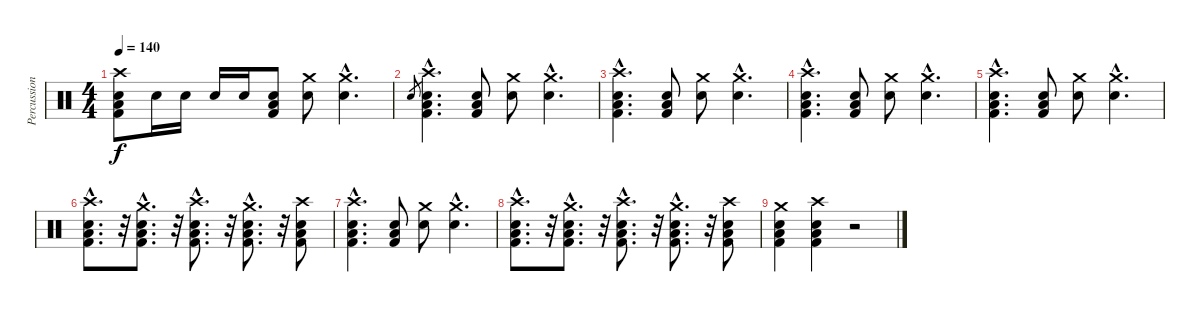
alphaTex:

\track ("Percussions" "Percussion") {instrument percussion}
\staff {score}
\articulation defaults
\ts (4 4)
\tempo 140
\clef neutral
\ks c
("Crash high (hit)" "Electric Snare (hit)" "Low Floor Tom (hit)" "Kick (hit) 2").8{dy f} "Electric Snare (hit)".16 "Electric Snare (hit)".16 "Electric Snare (hit)".16 "Electric Snare (hit)".16 ("Electric Snare (hit)" "Low Floor Tom (hit)" "Kick (hit) 2").8 ("Crash medium (hit)" "Electric Snare (hit)").8 ("Crash medium (hit)"{hac} "Electric Snare (hit)"{hac}).4{d} |
"Electric Snare (hit)".8{gr} ("Crash high (hit)"{hac} "Electric Snare (hit)"{hac} "Low Floor Tom (hit)"{hac} "Kick (hit) 2"{hac}).4{d} ("Electric Snare (hit)" "Low Floor Tom (hit)" "Kick (hit) 2").8 ("Crash medium (hit)" "Electric Snare (hit)").8 ("Crash medium (hit)"{hac} "Electric Snare (hit)"{hac}).4{d} |
("Crash high (hit)"{hac} "Electric Snare (hit)"{hac} "Low Floor Tom (hit)"{hac} "Kick (hit) 2"{hac}).4{d} ("Electric Snare (hit)" "Low Floor Tom (hit)" "Kick (hit) 2").8 ("Crash medium (hit)" "Electric Snare (hit)").8 ("Crash medium (hit)"{hac} "Electric Snare (hit)"{hac}).4{d} |
("Crash high (hit)"{hac} "Electric Snare (hit)"{hac} "Low Floor Tom (hit)"{hac} "Kick (hit) 2"{hac}).4{d} ("Electric Snare (hit)" "Low Floor Tom (hit)" "Kick (hit) 2").8 ("Crash medium (hit)" "Electric Snare (hit)").8 ("Crash medium (hit)"{hac} "Electric Snare (hit)"{hac}).4{d} |
("Crash high (hit)"{hac} "Electric Snare (hit)"{hac} "Low Floor Tom (hit)"{hac} "Kick (hit) 2"{hac}).4{d} ("Electric Snare (hit)" "Low Floor Tom (hit)" "Kick (hit) 2").8 ("Crash medium (hit)" "Electric Snare (hit)").8 ("Crash medium (hit)"{hac} "Electric Snare (hit)"{hac}).4{d} |
("Crash high (hit)"{hac} "Electric Snare (hit)"{hac} "Low Floor Tom (hit)"{hac} "Kick (hit) 2"{hac}).8{d} r.32 ("Crash medium (hit)"{hac} "Electric Snare (hit)"{hac} "Low Floor Tom (hit)"{hac} "Kick (hit) 2"{hac}).8{d} r.32 ("Crash high (hit)"{hac} "Electric Snare (hit)"{hac} "Low Floor Tom (hit)"{hac} "Kick (hit) 2"{hac}).8{d} r.32 ("Crash medium (hit)"{hac} "Electric Snare (hit)"{hac} "Low Floor Tom (hit)"{hac} "Kick (hit) 2"{hac}).8{d} r.32 ("Crash high (hit)" "Electric Snare (hit)" "Low Floor Tom (hit)" "Kick (hit) 2").8 |
("Crash high (hit)"{hac} "Electric Snare (hit)"{hac} "Low Floor Tom (hit)"{hac} "Kick (hit) 2"{hac}).4{d} ("Electric Snare (hit)" "Low Floor Tom (hit)" "Kick (hit) 2").8 ("Crash medium (hit)" "Electric Snare (hit)").8 ("Crash medium (hit)"{hac} "Electric Snare (hit)"{hac}).4{d} |
("Crash high (hit)"{hac} "Electric Snare (hit)"{hac} "Low Floor Tom (hit)"{hac} "Kick (hit) 2"{hac}).8{d} r.32 ("Crash medium (hit)"{hac} "Electric Snare (hit)"{hac} "Low Floor Tom (hit)"{hac} "Kick (hit) 2"{hac}).8{d} r.32 ("Crash high (hit)"{hac} "Electric Snare (hit)"{hac} "Low Floor Tom (hit)"{hac} "Kick (hit) 2"{hac}).8{d} r.32 ("Crash medium (hit)"{hac} "Electric Snare (hit)"{hac} "Low Floor Tom (hit)"{hac} "Kick (hit) 2"{hac}).8{d} r.32 ("Crash high (hit)" "Electric Snare (hit)" "Low Floor Tom (hit)" "Kick (hit) 2").8 |
("Crash medium (hit)" "Electric Snare (hit)" "Low Floor Tom (hit)" "Kick (hit) 2").4 ("Crash high (hit)" "Electric Snare (hit)" "Low Floor Tom (hit)" "Kick (hit) 2").4 r.2
